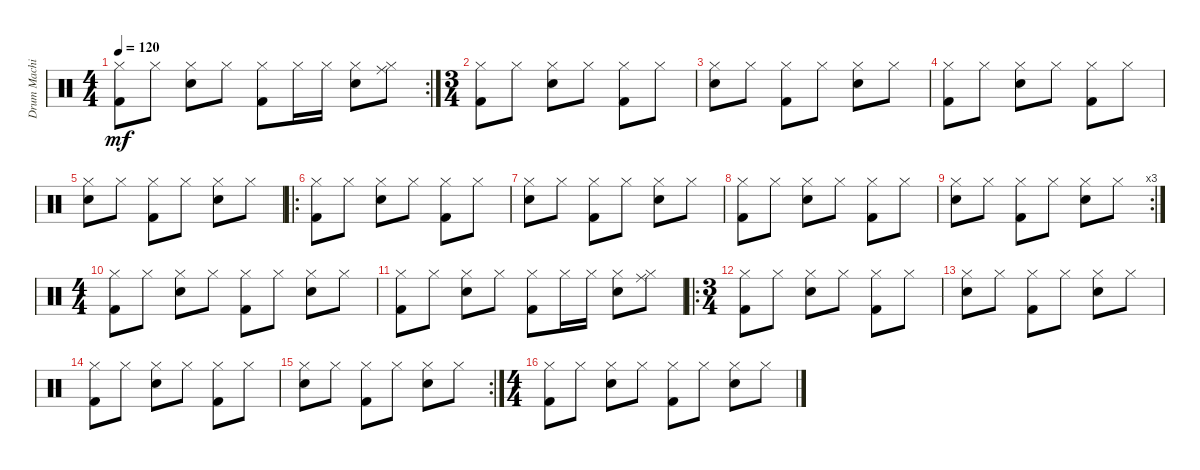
\track ("Drum Machine" "Drum Machi") {instrument percussion}
\staff {score}
\articulation defaults
\rc 2
\ts (4 4)
\tempo 120
\clef neutral
\ks c
("Hi-Hat (closed)" "Kick (hit) 2").8{dy mf} "Hi-Hat (closed)".8 ("Hi-Hat (closed)" "Snare (hit) 2").8 "Hi-Hat (closed)".8 ("Hi-Hat (closed)" "Kick (hit) 2").8 "Hi-Hat (closed)".16 "Hi-Hat (closed)".16 ("Hi-Hat (closed)" "Snare (hit) 2").8 ("Hi-Hat (closed)" "Ride (middle)").8 |
\ts (3 4)
("Hi-Hat (closed)" "Kick (hit) 2").8 "Hi-Hat (closed)".8 ("Hi-Hat (closed)" "Snare (hit) 2").8 "Hi-Hat (closed)".8 ("Hi-Hat (closed)" "Kick (hit) 2").8 "Hi-Hat (closed)".8 |
("Hi-Hat (closed)" "Snare (hit) 2").8 "Hi-Hat (closed)".8 ("Hi-Hat (closed)" "Kick (hit) 2").8 "Hi-Hat (closed)".8 ("Hi-Hat (closed)" "Snare (hit) 2").8 "Hi-Hat (closed)".8 |
("Hi-Hat (closed)" "Kick (hit) 2").8 "Hi-Hat (closed)".8 ("Hi-Hat (closed)" "Snare (hit) 2").8 "Hi-Hat (closed)".8 ("Hi-Hat (closed)" "Kick (hit) 2").8 "Hi-Hat (closed)".8 |
("Hi-Hat (closed)" "Snare (hit) 2").8 "Hi-Hat (closed)".8 ("Hi-Hat (closed)" "Kick (hit) 2").8 "Hi-Hat (closed)".8 ("Hi-Hat (closed)" "Snare (hit) 2").8 "Hi-Hat (closed)".8 |
\ro
("Hi-Hat (closed)" "Kick (hit) 2").8 "Hi-Hat (closed)".8 ("Hi-Hat (closed)" "Snare (hit) 2").8 "Hi-Hat (closed)".8 ("Hi-Hat (closed)" "Kick (hit) 2").8 "Hi-Hat (closed)".8 |
("Hi-Hat (closed)" "Snare (hit) 2").8 "Hi-Hat (closed)".8 ("Hi-Hat (closed)" "Kick (hit) 2").8 "Hi-Hat (closed)".8 ("Hi-Hat (closed)" "Snare (hit) 2").8 "Hi-Hat (closed)".8 |
("Hi-Hat (closed)" "Kick (hit) 2").8 "Hi-Hat (closed)".8 ("Hi-Hat (closed)" "Snare (hit) 2").8 "Hi-Hat (closed)".8 ("Hi-Hat (closed)" "Kick (hit) 2").8 "Hi-Hat (closed)".8 |
\rc 3
("Hi-Hat (closed)" "Snare (hit) 2").8 "Hi-Hat (closed)".8 ("Hi-Hat (closed)" "Kick (hit) 2").8 "Hi-Hat (closed)".8 ("Hi-Hat (closed)" "Snare (hit) 2").8 "Hi-Hat (closed)".8 |
\ts (4 4)
("Hi-Hat (closed)" "Kick (hit) 2").8 "Hi-Hat (closed)".8 ("Hi-Hat (closed)" "Snare (hit) 2").8 "Hi-Hat (closed)".8 ("Hi-Hat (closed)" "Kick (hit) 2").8 "Hi-Hat (closed)".8 ("Hi-Hat (closed)" "Snare (hit) 2").8 "Hi-Hat (closed)".8 |
("Hi-Hat (closed)" "Kick (hit) 2").8 "Hi-Hat (closed)".8 ("Hi-Hat (closed)" "Snare (hit) 2").8 "Hi-Hat (closed)".8 ("Hi-Hat (closed)" "Kick (hit) 2").8 "Hi-Hat (closed)".16 "Hi-Hat (closed)".16 ("Hi-Hat (closed)" "Snare (hit) 2").8 ("Hi-Hat (closed)" "Ride (middle)").8 |
\ro
\ts (3 4)
("Hi-Hat (closed)" "Kick (hit) 2").8 "Hi-Hat (closed)".8 ("Hi-Hat (closed)" "Snare (hit) 2").8 "Hi-Hat (closed)".8 ("Hi-Hat (closed)" "Kick (hit) 2").8 "Hi-Hat (closed)".8 |
("Hi-Hat (closed)" "Snare (hit) 2").8 "Hi-Hat (closed)".8 ("Hi-Hat (closed)" "Kick (hit) 2").8 "Hi-Hat (closed)".8 ("Hi-Hat (closed)" "Snare (hit) 2").8 "Hi-Hat (closed)".8 |
("Hi-Hat (closed)" "Kick (hit) 2").8 "Hi-Hat (closed)".8 ("Hi-Hat (closed)" "Snare (hit) 2").8 "Hi-Hat (closed)".8 ("Hi-Hat (closed)" "Kick (hit) 2").8 "Hi-Hat (closed)".8 |
\rc 2
("Hi-Hat (closed)" "Snare (hit) 2").8 "Hi-Hat (closed)".8 ("Hi-Hat (closed)" "Kick (hit) 2").8 "Hi-Hat (closed)".8 ("Hi-Hat (closed)" "Snare (hit) 2").8 "Hi-Hat (closed)".8 |
\ts (4 4)
("Hi-Hat (closed)" "Kick (hit) 2").8 "Hi-Hat (closed)".8 ("Hi-Hat (closed)" "Snare (hit) 2").8 "Hi-Hat (closed)".8 ("Hi-Hat (closed)" "Kick (hit) 2").8 "Hi-Hat (closed)".8 ("Hi-Hat (closed)" "Snare (hit) 2").8 "Hi-Hat (closed)".8
